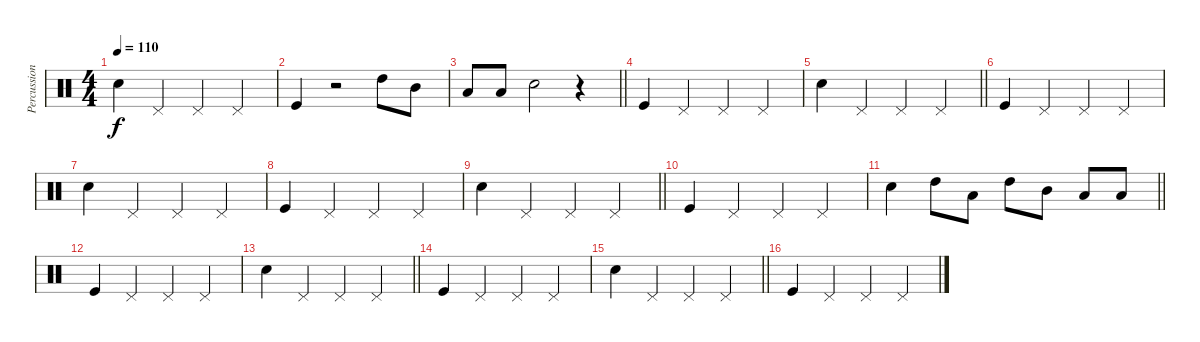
\track ("Percussion" "Percussion") {instrument percussion}
\staff {score}
\articulation defaults
\ts (4 4)
\tempo 110
\clef neutral
\ks c "Electric Snare (hit)".4{dy f} "Pedal Hi-Hat (hit)".4 "Pedal Hi-Hat (hit)".4 "Pedal Hi-Hat (hit)".4
|
"Kick (hit)".4 r.2 "High Tom (hit)".8 "Mid Tom (hit)".8 |
\barLineRight lightlight "Low Tom (hit)".8 "Low Tom (hit)".8 "Snare (hit) 2".2
r.4 |
"Kick (hit)".4 "Pedal Hi-Hat (hit)".4 "Pedal Hi-Hat (hit)".4 "Pedal Hi-Hat (hit)".4 |
\barLineRight lightlight "Electric Snare (hit)".4 "Pedal Hi-Hat (hit)".4 "Pedal Hi-Hat (hit)".4 "Pedal Hi-Hat (hit)".4
|
"Kick (hit)".4 "Pedal Hi-Hat (hit)".4 "Pedal Hi-Hat (hit)".4 "Pedal Hi-Hat (hit)".4 |
"Electric Snare (hit)".4 "Pedal Hi-Hat (hit)".4 "Pedal Hi-Hat (hit)".4 "Pedal Hi-Hat (hit)".4 |
"Kick (hit)".4 "Pedal Hi-Hat (hit)".4 "Pedal Hi-Hat (hit)".4 "Pedal Hi-Hat (hit)".4 |
\barLineRight lightlight "Electric Snare (hit)".4 "Pedal Hi-Hat (hit)".4 "Pedal Hi-Hat (hit)".4 "Pedal Hi-Hat (hit)".4
|
"Kick (hit)".4 "Pedal Hi-Hat (hit)".4 "Pedal Hi-Hat (hit)".4 "Pedal Hi-Hat (hit)".4 |
\barLineRight lightlight "Electric Snare (hit)".4 "High Tom (hit)".8 "Low Tom (hit)".8 "High Tom (hit)".8 "Mid Tom (hit)".8 "Low Tom (hit)".8 "Low Tom (hit)".8
|
"Kick (hit)".4 "Pedal Hi-Hat (hit)".4 "Pedal Hi-Hat (hit)".4 "Pedal Hi-Hat (hit)".4 |
\barLineRight lightlight "Electric Snare (hit)".4 "Pedal Hi-Hat (hit)".4 "Pedal Hi-Hat (hit)".4 "Pedal Hi-Hat (hit)".4
|
"Kick (hit)".4 "Pedal Hi-Hat (hit)".4 "Pedal Hi-Hat (hit)".4 "Pedal Hi-Hat (hit)".4 |
\barLineRight lightlight "Electric Snare (hit)".4 "Pedal Hi-Hat (hit)".4 "Pedal Hi-Hat (hit)".4 "Pedal Hi-Hat (hit)".4
|
"Kick (hit)".4 "Pedal Hi-Hat (hit)".4 "Pedal Hi-Hat (hit)".4 "Pedal Hi-Hat (hit)".4
